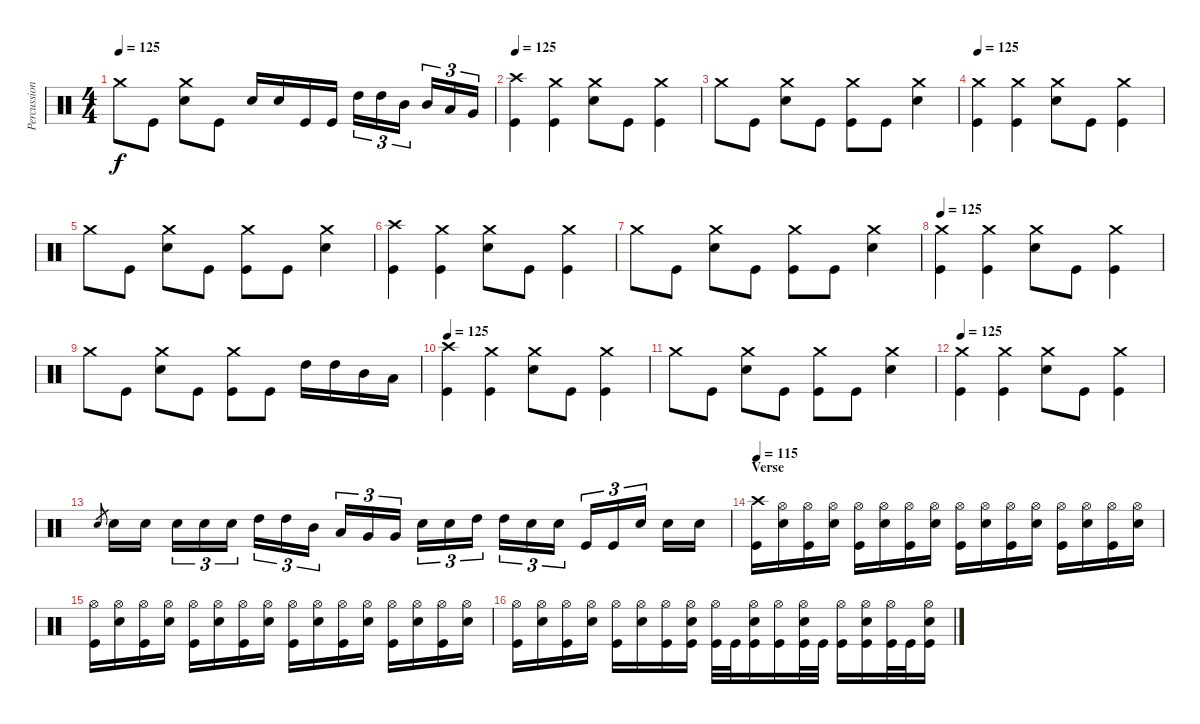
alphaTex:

\track ("Percussion" "Percussion") {instrument percussion}
\staff {score}
\articulation defaults
\ts (4 4)
\tempo 125
\clef neutral
\ks c "Crash medium (hit)".8{dy f} "Kick (hit)".8
("Crash medium (hit)" "Electric Snare (hit)").8 "Kick (hit)".8 "Electric Snare (hit)".16 "Electric Snare (hit)".16 "Kick (hit)".16 "Kick (hit)".16 "High Tom (hit)".16{tu (3 2)} "High Tom (hit)".16{tu (3 2)} "Mid Tom (hit)".16{tu (3 2)} "Mid Tom (hit)".16{tu (3 2)} "Low Tom (hit)".16{tu (3 2)} "Very Low Tom (hit)".16{tu (3 2)} |
\tempo 125
("Crash high (hit)" "Kick (hit)").4 ("Crash medium (hit)" "Kick (hit)").4 ("Crash medium (hit)" "Electric Snare (hit)").8 "Kick (hit)".8 ("Crash medium (hit)" "Kick (hit)").4 |
"Crash medium (hit)".8 "Kick (hit)".8 ("Crash medium (hit)" "Electric Snare (hit)").8 "Kick (hit)".8 ("Crash medium (hit)" "Kick (hit)").8 "Kick (hit)".8 ("Crash medium (hit)" "Electric Snare (hit)").4 |
\tempo 125
("Crash medium (hit)" "Kick (hit)").4 ("Crash medium (hit)" "Kick (hit)").4 ("Crash medium (hit)" "Electric Snare (hit)").8 "Kick (hit)".8 ("Crash medium (hit)" "Kick (hit)").4 |
"Crash medium (hit)".8 "Kick (hit)".8 ("Crash medium (hit)" "Electric Snare (hit)").8 "Kick (hit)".8 ("Crash medium (hit)" "Kick (hit)").8 "Kick (hit)".8 ("Crash medium (hit)" "Electric Snare (hit)").4 |
("Crash high (hit)" "Kick (hit)").4 ("Crash medium (hit)" "Kick (hit)").4 ("Crash medium (hit)" "Electric Snare (hit)").8 "Kick (hit)".8 ("Crash medium (hit)" "Kick (hit)").4 |
"Crash medium (hit)".8 "Kick (hit)".8 ("Crash medium (hit)" "Electric Snare (hit)").8 "Kick (hit)".8 ("Crash medium (hit)" "Kick (hit)").8 "Kick (hit)".8 ("Crash medium (hit)" "Electric Snare (hit)").4 |
\tempo 125
("Crash medium (hit)" "Kick (hit)").4 ("Crash medium (hit)" "Kick (hit)").4 ("Crash medium (hit)" "Electric Snare (hit)").8 "Kick (hit)".8 ("Crash medium (hit)" "Kick (hit)").4 |
"Crash medium (hit)".8 "Kick (hit)".8 ("Crash medium (hit)" "Electric Snare (hit)").8 "Kick (hit)".8 ("Crash medium (hit)" "Kick (hit)").8 "Kick (hit)".8 "High Tom (hit)".16 "High Tom (hit)".16 "Mid Tom (hit)".16 "Low Tom (hit)".16 |
\tempo 125
("Crash high (hit)" "Kick (hit)").4 ("Crash medium (hit)" "Kick (hit)").4 ("Crash medium (hit)" "Electric Snare (hit)").8 "Kick (hit)".8 ("Crash medium (hit)" "Kick (hit)").4 |
"Crash medium (hit)".8 "Kick (hit)".8 ("Crash medium (hit)" "Electric Snare (hit)").8 "Kick (hit)".8 ("Crash medium (hit)" "Kick (hit)").8 "Kick (hit)".8 ("Crash medium (hit)" "Electric Snare (hit)").4 |
\tempo 125
("Crash medium (hit)" "Kick (hit)").4 ("Crash medium (hit)" "Kick (hit)").4 ("Crash medium (hit)" "Electric Snare (hit)").8 "Kick (hit)".8 ("Crash medium (hit)" "Kick (hit)").4 |
"Electric Snare (hit)".8{gr} "Electric Snare (hit)".16 "Electric Snare (hit)".16 "Electric Snare (hit)".16{tu (3 2)} "Electric Snare (hit)".16{tu (3 2)} "Electric Snare (hit)".16{tu (3 2)} "High Tom (hit)".16{tu (3 2)} "High Tom (hit)".16{tu (3 2)} "Mid Tom (hit)".16{tu (3 2)} "Low Tom (hit)".16{tu (3 2)} "Very Low Tom (hit)".16{tu (3 2)} "Very Low Tom (hit)".16{tu (3 2)} "Electric Snare (hit)".16{tu (3 2)} "Electric Snare (hit)".16{tu (3 2)} "High Tom (hit)".16{tu (3 2)} "High Tom (hit)".16{tu (3 2)} "Electric Snare (hit)".16{tu (3 2)} "Electric Snare (hit)".16{tu (3 2)} "Kick (hit)".16{tu (3 2)} "Kick (hit)".16{tu (3 2)} "Electric Snare (hit)".16{tu (3 2)} "Electric Snare (hit)".16 "Electric Snare (hit)".16 |
\section ("" "Verse")
\tempo 115
("Crash high (hit)" "Kick (hit)").16 ("Hi-Hat (open)" "Electric Snare (hit)").16 ("Hi-Hat (open)" "Kick (hit)").16 ("Hi-Hat (open)" "Electric Snare (hit)").16 ("Hi-Hat (open)" "Kick (hit)").16 ("Hi-Hat (open)" "Electric Snare (hit)").16 ("Hi-Hat (open)" "Kick (hit)").16 ("Hi-Hat (open)" "Electric Snare (hit)").16 ("Hi-Hat (open)" "Kick (hit)").16 ("Hi-Hat (open)" "Electric Snare (hit)").16 ("Hi-Hat (open)" "Kick (hit)").16 ("Hi-Hat (open)" "Electric Snare (hit)").16 ("Hi-Hat (open)" "Kick (hit)").16 ("Hi-Hat (open)" "Electric Snare (hit)").16 ("Hi-Hat (open)" "Kick (hit)").16 ("Hi-Hat (open)" "Electric Snare (hit)").16 |
("Hi-Hat (open)" "Kick (hit)").16 ("Hi-Hat (open)" "Electric Snare (hit)").16 ("Hi-Hat (open)" "Kick (hit)").16 ("Hi-Hat (open)" "Electric Snare (hit)").16 ("Hi-Hat (open)" "Kick (hit)").16 ("Hi-Hat (open)" "Electric Snare (hit)").16 ("Hi-Hat (open)" "Kick (hit)").16 ("Hi-Hat (open)" "Electric Snare (hit)").16 ("Hi-Hat (open)" "Kick (hit)").16 ("Hi-Hat (open)" "Electric Snare (hit)").16 ("Hi-Hat (open)" "Kick (hit)").16 ("Hi-Hat (open)" "Electric Snare (hit)").16 ("Hi-Hat (open)" "Kick (hit)").16 ("Hi-Hat (open)" "Electric Snare (hit)").16 ("Hi-Hat (open)" "Kick (hit)").16 ("Hi-Hat (open)" "Electric Snare (hit)").16 |
("Hi-Hat (open)" "Kick (hit)").16 ("Hi-Hat (open)" "Electric Snare (hit)").16 ("Hi-Hat (open)" "Kick (hit)").16 ("Hi-Hat (open)" "Electric Snare (hit)").16 ("Hi-Hat (open)" "Kick (hit)").16 ("Hi-Hat (open)" "Electric Snare (hit)").16 ("Hi-Hat (open)" "Kick (hit)").16 ("Hi-Hat (open)" "Electric Snare (hit)" "Kick (hit)").16 ("Hi-Hat (open)" "Kick (hit)").32 "Kick (hit)".32 ("Hi-Hat (open)" "Electric Snare (hit)" "Kick (hit)").16 ("Hi-Hat (open)" "Kick (hit)").16 ("Hi-Hat (open)" "Electric Snare (hit)" "Kick (hit)").32 "Kick (hit)".32 ("Hi-Hat (open)" "Kick (hit)").16 ("Hi-Hat (open)" "Electric Snare (hit)" "Kick (hit)").16 ("Hi-Hat (open)" "Kick (hit)").32 "Kick (hit)".32 ("Hi-Hat (open)" "Electric Snare (hit)" "Kick (hit)").16
